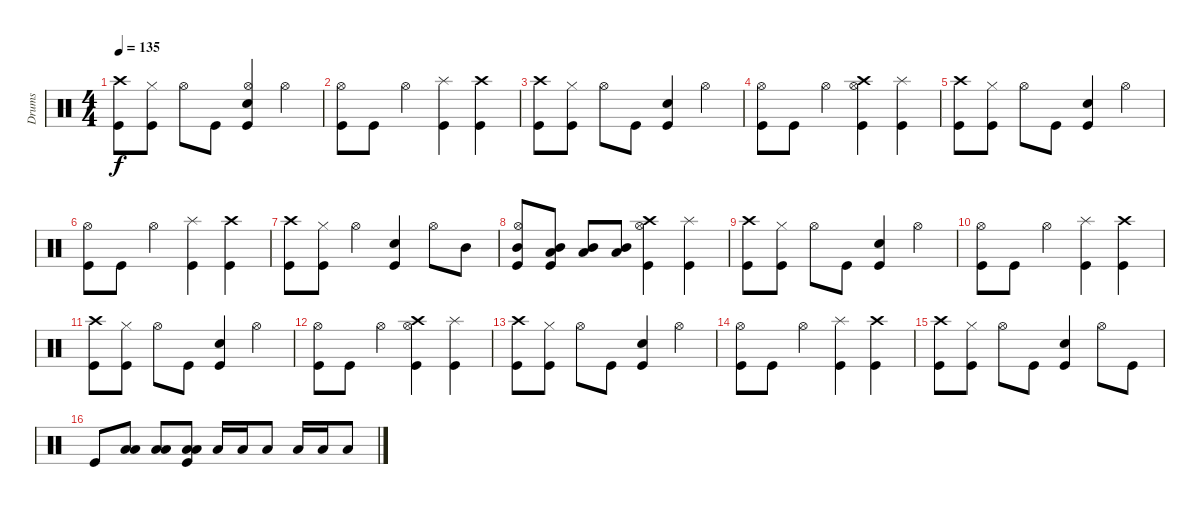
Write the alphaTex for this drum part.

\track ("Drums" "Drums") {instrument percussion}
\staff {score}
\articulation defaults
\ts (4 4)
\tempo 135
\clef neutral
\ks c
("Crash high (hit)" "Kick (hit)").8{dy f} ("Hi-Hat (closed)" "Kick (hit)").8 "Hi-Hat (open)".8 "Kick (hit)".8 ("Hi-Hat (open)" "Snare (hit) 2" "Kick (hit)").4 "Hi-Hat (open)".4 |
("Hi-Hat (open)" "Kick (hit)").8 "Kick (hit)".8 "Hi-Hat (open)".4 ("Splash (hit)" "Kick (hit)").4 ("Crash high (hit)" "Kick (hit)").4 |
("Crash high (hit)" "Kick (hit)").8 ("Hi-Hat (closed)" "Kick (hit)").8 "Hi-Hat (open)".8 "Kick (hit)".8 ("Snare (hit) 2" "Kick (hit)").4 "Hi-Hat (open)".4 |
("Hi-Hat (open)" "Kick (hit)").8 "Kick (hit)".8 "Hi-Hat (open)".4 ("Crash high (hit)" "Hi-Hat (open)" "Kick (hit)").4 ("Splash (hit)" "Kick (hit)").4 |
("Crash high (hit)" "Kick (hit)").8 ("Hi-Hat (closed)" "Kick (hit)").8 "Hi-Hat (open)".8 "Kick (hit)".8 ("Snare (hit) 2" "Kick (hit)").4 "Hi-Hat (open)".4 |
("Hi-Hat (open)" "Kick (hit)").8 "Kick (hit)".8 "Hi-Hat (open)".4 ("Splash (hit)" "Kick (hit)").4 ("Crash high (hit)" "Kick (hit)").4 |
("Crash high (hit)" "Kick (hit)").8 ("Hi-Hat (closed)" "Kick (hit)").8 "Hi-Hat (open)".4 ("Snare (hit) 2" "Kick (hit)").4 "Hi-Hat (open)".8 "Mid Tom (hit)".8 |
("Mid Tom (hit)" "Hi-Hat (open)" "Kick (hit)").8 ("Mid Tom (hit)" "Low Tom (hit)" "Kick (hit)").8 ("Mid Tom (hit)" "Low Tom (hit)").8 ("Mid Tom (hit)" "Low Tom (hit)").8 ("Crash high (hit)" "Hi-Hat (open)" "Kick (hit)").4 ("Splash (hit)" "Kick (hit)").4 |
("Crash high (hit)" "Kick (hit)").8 ("Hi-Hat (closed)" "Kick (hit)").8 "Hi-Hat (open)".8 "Kick (hit)".8 ("Snare (hit) 2" "Kick (hit)").4 "Hi-Hat (open)".4 |
("Hi-Hat (open)" "Kick (hit)").8 "Kick (hit)".8 "Hi-Hat (open)".4 ("Splash (hit)" "Kick (hit)").4 ("Crash high (hit)" "Kick (hit)").4 |
("Crash high (hit)" "Kick (hit)").8 ("Hi-Hat (closed)" "Kick (hit)").8 "Hi-Hat (open)".8 "Kick (hit)".8 ("Snare (hit) 2" "Kick (hit)").4 "Hi-Hat (open)".4 |
("Hi-Hat (open)" "Kick (hit)").8 "Kick (hit)".8 "Hi-Hat (open)".4 ("Crash high (hit)" "Hi-Hat (open)" "Kick (hit)").4 ("Splash (hit)" "Kick (hit)").4 |
("Crash high (hit)" "Kick (hit)").8 ("Hi-Hat (closed)" "Kick (hit)").8 "Hi-Hat (open)".8 "Kick (hit)".8 ("Snare (hit) 2" "Kick (hit)").4 "Hi-Hat (open)".4 |
("Hi-Hat (open)" "Kick (hit)").8 "Kick (hit)".8 "Hi-Hat (open)".4 ("Splash (hit)" "Kick (hit)").4 ("Crash high (hit)" "Kick (hit)").4 |
("Crash high (hit)" "Kick (hit)").8 ("Hi-Hat (closed)" "Kick (hit)").8 "Hi-Hat (open)".8 "Kick (hit)".8 ("Snare (hit) 2" "Kick (hit)").4 "Hi-Hat (open)".8 "Kick (hit)".8 |
"Kick (hit)".8 ("Low Floor Tom (hit)" "Low Floor Tom (hit)").8 ("Low Floor Tom (hit)" "Low Floor Tom (hit)").8 ("Low Floor Tom (hit)" "Low Floor Tom (hit)" "Kick (hit)").8 "Low Tom (hit)".16 "Low Tom (hit)".16 "Low Tom (hit)".8 "Low Floor Tom (hit)".16 "Low Floor Tom (hit)".16 "Low Floor Tom (hit)".8
